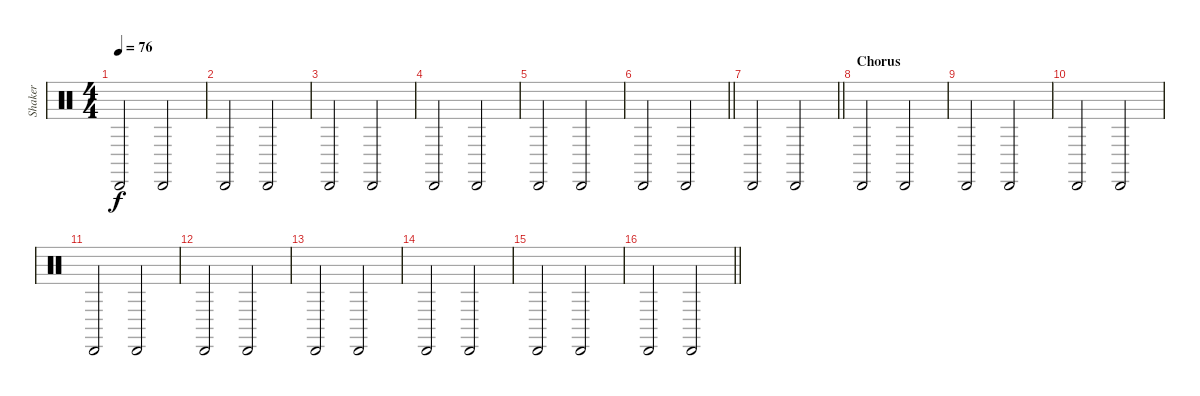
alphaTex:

\track ("Shaker" "Shaker") {instrument percussion}
\staff {score}
\articulation defaults
\ts (4 4)
\tempo 76
\clef neutral
\ks c "Cabasa (hit)".2{dy f} "Cabasa (hit)".2
|
"Cabasa (hit)".2 "Cabasa (hit)".2 |
"Cabasa (hit)".2 "Cabasa (hit)".2 |
"Cabasa (hit)".2 "Cabasa (hit)".2 |
"Cabasa (hit)".2 "Cabasa (hit)".2 |
\barLineRight lightlight "Cabasa (hit)".2 "Cabasa (hit)".2
|
\barLineRight lightlight "Cabasa (hit)".2 "Cabasa (hit)".2
|
\section ("" "Chorus")
"Cabasa (hit)".2 "Cabasa (hit)".2 |
"Cabasa (hit)".2 "Cabasa (hit)".2 |
"Cabasa (hit)".2 "Cabasa (hit)".2 |
"Cabasa (hit)".2 "Cabasa (hit)".2 |
"Cabasa (hit)".2 "Cabasa (hit)".2 |
"Cabasa (hit)".2 "Cabasa (hit)".2 |
"Cabasa (hit)".2 "Cabasa (hit)".2 |
"Cabasa (hit)".2 "Cabasa (hit)".2 |
\barLineRight lightlight "Cabasa (hit)".2 "Cabasa (hit)".2
